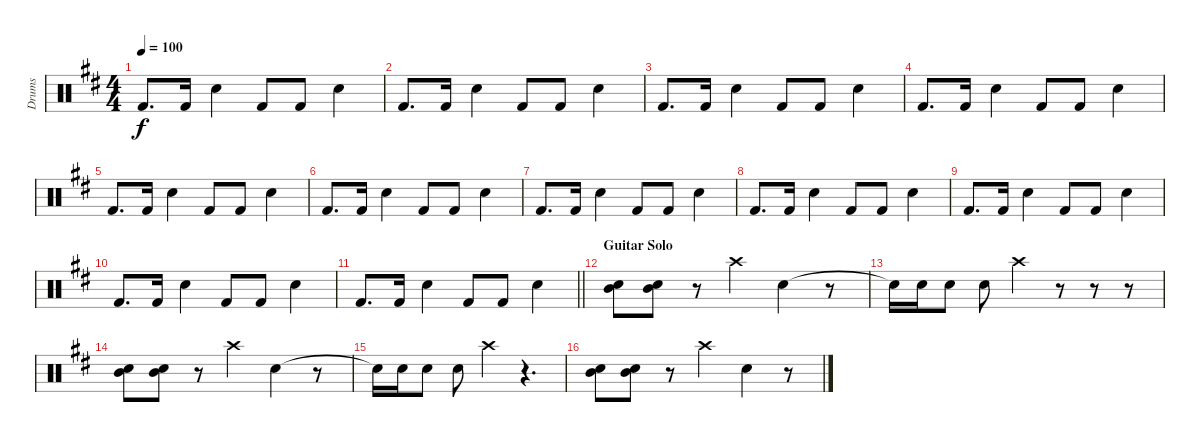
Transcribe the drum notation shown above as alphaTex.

\track ("Drums" "Drums") {instrument percussion}
\staff {score}
\articulation defaults
\ts (4 4)
\tempo 100
\clef neutral
\ks d "Kick (hit) 2".8{d dy f} "Kick (hit) 2".16 "Snare (hit) 2".4 "Kick (hit) 2".8 "Kick (hit) 2".8 "Snare (hit) 2".4
|
"Kick (hit) 2".8{d} "Kick (hit) 2".16 "Snare (hit) 2".4 "Kick (hit) 2".8 "Kick (hit) 2".8 "Snare (hit) 2".4 |
"Kick (hit) 2".8{d} "Kick (hit) 2".16 "Snare (hit) 2".4 "Kick (hit) 2".8 "Kick (hit) 2".8 "Snare (hit) 2".4 |
"Kick (hit) 2".8{d} "Kick (hit) 2".16 "Snare (hit) 2".4 "Kick (hit) 2".8 "Kick (hit) 2".8 "Snare (hit) 2".4 |
"Kick (hit) 2".8{d} "Kick (hit) 2".16 "Snare (hit) 2".4 "Kick (hit) 2".8 "Kick (hit) 2".8 "Snare (hit) 2".4 |
"Kick (hit) 2".8{d} "Kick (hit) 2".16 "Snare (hit) 2".4 "Kick (hit) 2".8 "Kick (hit) 2".8 "Snare (hit) 2".4 |
"Kick (hit) 2".8{d} "Kick (hit) 2".16 "Snare (hit) 2".4 "Kick (hit) 2".8 "Kick (hit) 2".8 "Snare (hit) 2".4 |
"Kick (hit) 2".8{d} "Kick (hit) 2".16 "Snare (hit) 2".4 "Kick (hit) 2".8 "Kick (hit) 2".8 "Snare (hit) 2".4 |
"Kick (hit) 2".8{d} "Kick (hit) 2".16 "Snare (hit) 2".4 "Kick (hit) 2".8 "Kick (hit) 2".8 "Snare (hit) 2".4 |
"Kick (hit) 2".8{d} "Kick (hit) 2".16 "Snare (hit) 2".4 "Kick (hit) 2".8 "Kick (hit) 2".8 "Snare (hit) 2".4 |
\barLineRight lightlight "Kick (hit) 2".8{d} "Kick (hit) 2".16 "Snare (hit) 2".4 "Kick (hit) 2".8 "Kick (hit) 2".8 "Snare (hit) 2".4
|
\section ("" "Guitar Solo")
("Mid Tom (hit)" "Electric Snare (hit)").8 ("Mid Tom (hit)" "Electric Snare (hit)").8 r.8 "Crash high (hit)".4 "Electric Snare (hit)".4 r.8 |
"Electric Snare (hit)"{t}.16 "Electric Snare (hit)".16 "Electric Snare (hit)".8 "Electric Snare (hit)".8 "Crash high (hit)".4 r.8 r.8 r.8 |
("Mid Tom (hit)" "Electric Snare (hit)").8 ("Mid Tom (hit)" "Electric Snare (hit)").8 r.8 "Crash high (hit)".4 "Electric Snare (hit)".4 r.8 |
"Electric Snare (hit)"{t}.16 "Electric Snare (hit)".16 "Electric Snare (hit)".8 "Electric Snare (hit)".8 "Crash high (hit)".4 r.4{d} |
("Mid Tom (hit)" "Electric Snare (hit)").8 ("Mid Tom (hit)" "Electric Snare (hit)").8 r.8 "Crash high (hit)".4 "Electric Snare (hit)".4 r.8
